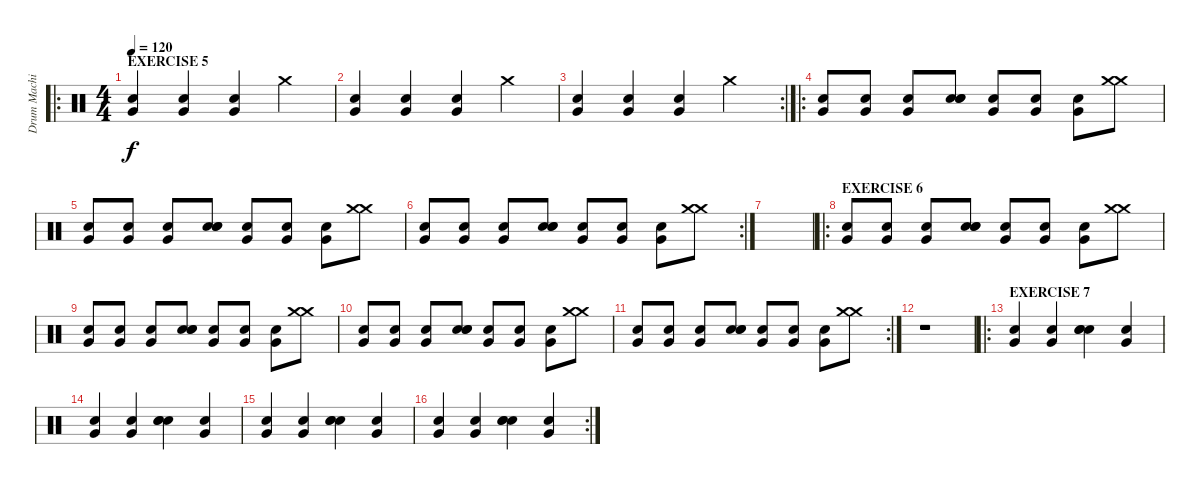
\track ("Drum Machine" "Drum Machi") {instrument percussion}
\staff {score}
\articulation defaults
\ro
\ts (4 4)
\section ("" "EXERCISE 5")
\tempo 120
\clef neutral
\ks c
("Electric Snare (hit)" "Very Low Tom (hit)").4{dy f} ("Electric Snare (hit)" "Very Low Tom (hit)").4 ("Electric Snare (hit)" "Very Low Tom (hit)").4 "Crash medium (hit)".4 |
("Electric Snare (hit)" "Very Low Tom (hit)").4 ("Electric Snare (hit)" "Very Low Tom (hit)").4 ("Electric Snare (hit)" "Very Low Tom (hit)").4 "Crash medium (hit)".4 |
\rc 2
("Electric Snare (hit)" "Very Low Tom (hit)").4 ("Electric Snare (hit)" "Very Low Tom (hit)").4 ("Electric Snare (hit)" "Very Low Tom (hit)").4 "Crash medium (hit)".4 |
\ro
("Electric Snare (hit)" "Very Low Tom (hit)").8 ("Electric Snare (hit)" "Very Low Tom (hit)").8 ("Electric Snare (hit)" "Very Low Tom (hit)").8 ("Snare (hit) 2" "Snare (hit) 2" "Snare (hit) 2").8 ("Electric Snare (hit)" "Very Low Tom (hit)").8 ("Electric Snare (hit)" "Very Low Tom (hit)").8 ("Electric Snare (hit)" "Very Low Tom (hit)").8 ("Crash medium (hit)" "Crash medium (hit)").8 |
("Electric Snare (hit)" "Very Low Tom (hit)").8 ("Electric Snare (hit)" "Very Low Tom (hit)").8 ("Electric Snare (hit)" "Very Low Tom (hit)").8 ("Snare (hit) 2" "Snare (hit) 2" "Snare (hit) 2").8 ("Electric Snare (hit)" "Very Low Tom (hit)").8 ("Electric Snare (hit)" "Very Low Tom (hit)").8 ("Electric Snare (hit)" "Very Low Tom (hit)").8 ("Crash medium (hit)" "Crash medium (hit)").8 |
\rc 2
("Electric Snare (hit)" "Very Low Tom (hit)").8 ("Electric Snare (hit)" "Very Low Tom (hit)").8 ("Electric Snare (hit)" "Very Low Tom (hit)").8 ("Snare (hit) 2" "Snare (hit) 2" "Snare (hit) 2").8 ("Electric Snare (hit)" "Very Low Tom (hit)").8 ("Electric Snare (hit)" "Very Low Tom (hit)").8 ("Electric Snare (hit)" "Very Low Tom (hit)").8 ("Crash medium (hit)" "Crash medium (hit)").8 |
|
\ro
\section ("" "EXERCISE 6")
("Electric Snare (hit)" "Very Low Tom (hit)").8 ("Electric Snare (hit)" "Very Low Tom (hit)").8 ("Electric Snare (hit)" "Very Low Tom (hit)").8 ("Snare (hit) 2" "Snare (hit) 2" "Snare (hit) 2").8 ("Electric Snare (hit)" "Very Low Tom (hit)").8 ("Electric Snare (hit)" "Very Low Tom (hit)").8 ("Electric Snare (hit)" "Very Low Tom (hit)").8 ("Crash medium (hit)" "Crash medium (hit)").8 |
("Electric Snare (hit)" "Very Low Tom (hit)").8 ("Electric Snare (hit)" "Very Low Tom (hit)").8 ("Electric Snare (hit)" "Very Low Tom (hit)").8 ("Snare (hit) 2" "Snare (hit) 2" "Snare (hit) 2").8 ("Electric Snare (hit)" "Very Low Tom (hit)").8 ("Electric Snare (hit)" "Very Low Tom (hit)").8 ("Electric Snare (hit)" "Very Low Tom (hit)").8 ("Crash medium (hit)" "Crash medium (hit)").8 |
("Electric Snare (hit)" "Very Low Tom (hit)").8 ("Electric Snare (hit)" "Very Low Tom (hit)").8 ("Electric Snare (hit)" "Very Low Tom (hit)").8 ("Snare (hit) 2" "Snare (hit) 2" "Snare (hit) 2").8 ("Electric Snare (hit)" "Very Low Tom (hit)").8 ("Electric Snare (hit)" "Very Low Tom (hit)").8 ("Electric Snare (hit)" "Very Low Tom (hit)").8 ("Crash medium (hit)" "Crash medium (hit)").8 |
\rc 2
("Electric Snare (hit)" "Very Low Tom (hit)").8 ("Electric Snare (hit)" "Very Low Tom (hit)").8 ("Electric Snare (hit)" "Very Low Tom (hit)").8 ("Snare (hit) 2" "Snare (hit) 2" "Snare (hit) 2").8 ("Electric Snare (hit)" "Very Low Tom (hit)").8 ("Electric Snare (hit)" "Very Low Tom (hit)").8 ("Electric Snare (hit)" "Very Low Tom (hit)").8 ("Crash medium (hit)" "Crash medium (hit)").8 |
r.1 |
\ro
\section ("" "EXERCISE 7")
("Electric Snare (hit)" "Very Low Tom (hit)").4 ("Electric Snare (hit)" "Very Low Tom (hit)").4 ("Snare (hit) 2" "Snare (hit) 2" "Snare (hit) 2").4 ("Electric Snare (hit)" "Very Low Tom (hit)").4 |
("Electric Snare (hit)" "Very Low Tom (hit)").4 ("Electric Snare (hit)" "Very Low Tom (hit)").4 ("Snare (hit) 2" "Snare (hit) 2" "Snare (hit) 2").4 ("Electric Snare (hit)" "Very Low Tom (hit)").4 |
("Electric Snare (hit)" "Very Low Tom (hit)").4 ("Electric Snare (hit)" "Very Low Tom (hit)").4 ("Snare (hit) 2" "Snare (hit) 2" "Snare (hit) 2").4 ("Electric Snare (hit)" "Very Low Tom (hit)").4 |
\rc 2
("Electric Snare (hit)" "Very Low Tom (hit)").4 ("Electric Snare (hit)" "Very Low Tom (hit)").4 ("Snare (hit) 2" "Snare (hit) 2" "Snare (hit) 2").4 ("Electric Snare (hit)" "Very Low Tom (hit)").4
